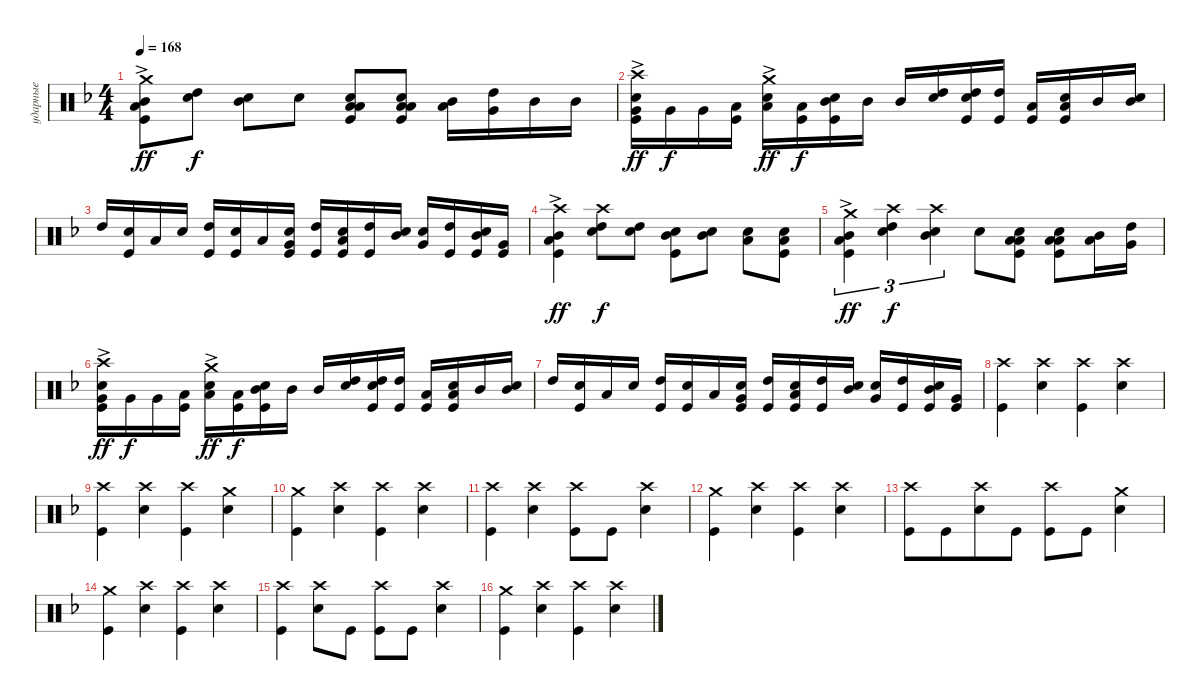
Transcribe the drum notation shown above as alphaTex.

\track ("ударные" "ударные") {instrument percussion}
\staff {score}
\articulation defaults
\ts (4 4)
\tempo 168
\clef neutral
\ks dminor
("Crash medium (hit)"{ac} "Low Tom (hit)" "Mid Tom (hit)" "Kick (hit)").8{dy ff} ("High Tom (hit)" "Snare (hit) 2").8{dy f} ("Mid Tom (hit)" "Snare (hit) 2").8 "Snare (hit) 2".8 ("Low Tom (hit)" "Snare (hit) 2" "Kick (hit)" "Low Floor Tom (hit)").8 ("Low Tom (hit)" "Snare (hit) 2" "Kick (hit)" "Low Floor Tom (hit)").8 ("Low Tom (hit)" "Mid Tom (hit)").16 ("Very Low Tom (hit)" "High Tom (hit)").16 "Mid Tom (hit)".16 "Mid Tom (hit)".16 |
("Very Low Tom (hit)" "Snare (hit) 2" "Kick (hit)" "Crash high (hit)"{ac}).16{dy ff} "Very Low Tom (hit)".16{dy f} "Very Low Tom (hit)".16 ("Low Tom (hit)" "Kick (hit)").16 ("Low Tom (hit)" "Snare (hit) 2" "Crash medium (hit)"{ac}).16{dy ff} ("Low Tom (hit)" "Kick (hit)").16{dy f} ("Mid Tom (hit)" "Snare (hit) 2" "Kick (hit)").16 "Mid Tom (hit)".16 "Mid Tom (hit)".16 ("High Tom (hit)" "Snare (hit) 2").16 ("High Tom (hit)" "Snare (hit) 2" "Kick (hit)").16 ("High Tom (hit)" "Kick (hit)").16 ("Low Tom (hit)" "Kick (hit)").16 ("Low Tom (hit)" "Snare (hit) 2" "Kick (hit)").16 "Mid Tom (hit)".16 ("Mid Tom (hit)" "Snare (hit) 2").16 |
"High Tom (hit)".16 ("Snare (hit) 2" "Kick (hit)").16 "Low Tom (hit)".16 "Snare (hit) 2".16 ("High Tom (hit)" "Kick (hit)").16 ("Snare (hit) 2" "Kick (hit)").16 "Low Tom (hit)".16 ("Snare (hit) 2" "Very Low Tom (hit)" "Kick (hit)").16 ("High Tom (hit)" "Kick (hit)").16 ("Snare (hit) 2" "Low Tom (hit)" "Kick (hit)").16 ("High Tom (hit)" "Kick (hit)").16 ("Snare (hit) 2" "Mid Tom (hit)").16 ("Snare (hit) 2" "Very Low Tom (hit)").16 ("High Tom (hit)" "Kick (hit)").16 ("Snare (hit) 2" "Mid Tom (hit)" "Kick (hit)").16 ("Very Low Tom (hit)" "Kick (hit)").16 |
("Crash high (hit)"{ac} "Low Tom (hit)" "Mid Tom (hit)" "Kick (hit)").4{dy ff} ("High Tom (hit)" "Snare (hit) 2" "Crash high (hit)").8{dy f} ("High Tom (hit)" "Snare (hit) 2").8 ("Mid Tom (hit)" "Snare (hit) 2" "Kick (hit)").8 ("Mid Tom (hit)" "Snare (hit) 2").8 ("Low Tom (hit)" "Snare (hit) 2").8 ("Low Tom (hit)" "Snare (hit) 2" "Kick (hit)").8 |
("Crash medium (hit)"{ac} "Low Tom (hit)" "Mid Tom (hit)" "Kick (hit)").4{tu (3 2) dy ff} ("High Tom (hit)" "Snare (hit) 2" "Crash high (hit)").4{tu (3 2) dy f} ("Mid Tom (hit)" "Snare (hit) 2" "Crash high (hit)").4{tu (3 2)} "Snare (hit) 2".8 ("Low Tom (hit)" "Snare (hit) 2" "Kick (hit)" "Low Floor Tom (hit)").8 ("Low Tom (hit)" "Snare (hit) 2" "Kick (hit)" "Low Floor Tom (hit)").8 ("Low Tom (hit)" "Mid Tom (hit)").16 ("Very Low Tom (hit)" "High Tom (hit)").16 |
("Very Low Tom (hit)" "Snare (hit) 2" "Kick (hit)" "Crash high (hit)"{ac}).16{dy ff} "Very Low Tom (hit)".16{dy f} "Very Low Tom (hit)".16 ("Low Tom (hit)" "Kick (hit)").16 ("Low Tom (hit)" "Snare (hit) 2" "Crash medium (hit)"{ac}).16{dy ff} ("Low Tom (hit)" "Kick (hit)").16{dy f} ("Mid Tom (hit)" "Snare (hit) 2" "Kick (hit)").16 "Mid Tom (hit)".16 "Mid Tom (hit)".16 ("High Tom (hit)" "Snare (hit) 2").16 ("High Tom (hit)" "Snare (hit) 2" "Kick (hit)").16 ("High Tom (hit)" "Kick (hit)").16 ("Low Tom (hit)" "Kick (hit)").16 ("Low Tom (hit)" "Snare (hit) 2" "Kick (hit)").16 "Mid Tom (hit)".16 ("Mid Tom (hit)" "Snare (hit) 2").16 |
"High Tom (hit)".16 ("Snare (hit) 2" "Kick (hit)").16 "Low Tom (hit)".16 "Snare (hit) 2".16 ("High Tom (hit)" "Kick (hit)").16 ("Snare (hit) 2" "Kick (hit)").16 "Low Tom (hit)".16 ("Snare (hit) 2" "Very Low Tom (hit)" "Kick (hit)").16 ("High Tom (hit)" "Kick (hit)").16 ("Snare (hit) 2" "Low Tom (hit)" "Kick (hit)").16 ("High Tom (hit)" "Kick (hit)").16 ("Snare (hit) 2" "Mid Tom (hit)").16 ("Snare (hit) 2" "Very Low Tom (hit)").16 ("High Tom (hit)" "Kick (hit)").16 ("Snare (hit) 2" "Mid Tom (hit)" "Kick (hit)").16 ("Very Low Tom (hit)" "Kick (hit)").16 |
("Kick (hit)" "Crash high (hit)").4 ("Snare (hit) 2" "Crash high (hit)").4 ("Kick (hit)" "Crash high (hit)").4 ("Snare (hit) 2" "Crash high (hit)").4 |
("Kick (hit)" "Crash high (hit)").4 ("Snare (hit) 2" "Crash high (hit)").4 ("Kick (hit)" "Crash high (hit)").4 ("Snare (hit) 2" "Crash medium (hit)").4 |
("Kick (hit)" "Crash medium (hit)").4 ("Snare (hit) 2" "Crash high (hit)").4 ("Kick (hit)" "Crash high (hit)").4 ("Snare (hit) 2" "Crash high (hit)").4 |
("Kick (hit)" "Crash high (hit)").4 ("Snare (hit) 2" "Crash high (hit)").4 ("Kick (hit)" "Crash high (hit)").8 "Kick (hit)".8 ("Snare (hit) 2" "Crash high (hit)").4 |
("Kick (hit)" "Crash medium (hit)").4 ("Snare (hit) 2" "Crash high (hit)").4 ("Kick (hit)" "Crash high (hit)").4 ("Snare (hit) 2" "Crash high (hit)").4 |
("Kick (hit)" "Crash high (hit)").8 "Kick (hit)".8{beam merge} ("Snare (hit) 2" "Crash high (hit)").8 "Kick (hit)".8 ("Kick (hit)" "Crash high (hit)").8 "Kick (hit)".8{beam merge} ("Snare (hit) 2" "Crash medium (hit)").4 |
("Kick (hit)" "Crash medium (hit)").4 ("Snare (hit) 2" "Crash high (hit)").4 ("Kick (hit)" "Crash high (hit)").4 ("Snare (hit) 2" "Crash high (hit)").4 |
("Kick (hit)" "Crash high (hit)").4 ("Snare (hit) 2" "Crash high (hit)").8 "Kick (hit)".8 ("Kick (hit)" "Crash high (hit)").8 "Kick (hit)".8 ("Snare (hit) 2" "Crash high (hit)").4 |
("Kick (hit)" "Crash medium (hit)").4 ("Snare (hit) 2" "Crash high (hit)").4 ("Kick (hit)" "Crash high (hit)").4 ("Snare (hit) 2" "Crash high (hit)").4
